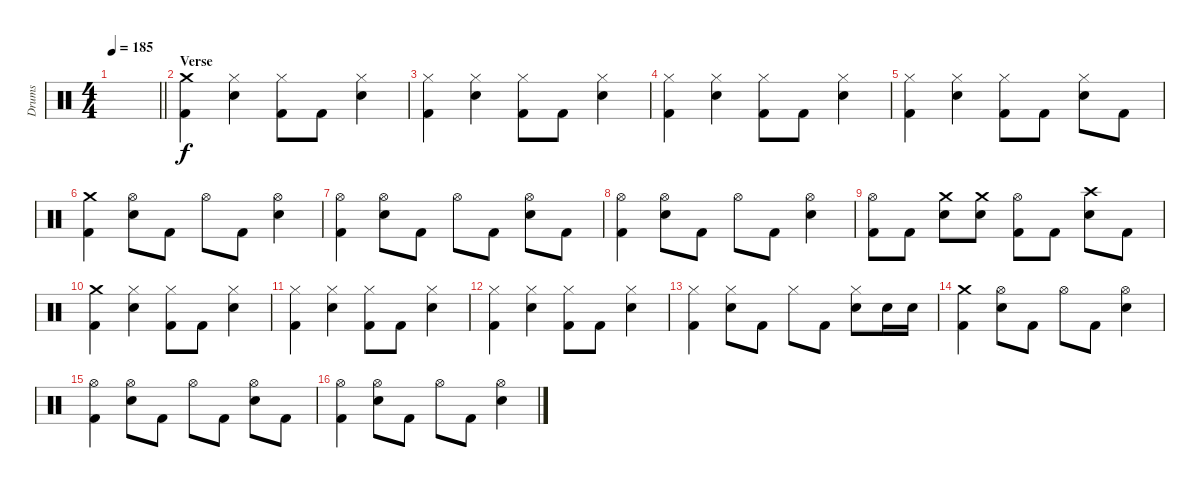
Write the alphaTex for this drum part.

\track ("Drums" "Drums") {instrument percussion}
\staff {score}
\articulation defaults
\ts (4 4)
\tempo 185
\clef neutral
\barLineRight lightlight
\ks c
|
\section ("" "Verse")
("Crash medium (hit)" "Kick (hit) 2").4 ("Hi-Hat (closed)" "Electric Snare (hit)").4 ("Hi-Hat (closed)" "Kick (hit) 2").8 "Kick (hit) 2".8 ("Hi-Hat (closed)" "Electric Snare (hit)").4 |
("Hi-Hat (closed)" "Kick (hit) 2").4 ("Hi-Hat (closed)" "Electric Snare (hit)").4 ("Hi-Hat (closed)" "Kick (hit) 2").8 "Kick (hit) 2".8 ("Hi-Hat (closed)" "Electric Snare (hit)").4 |
("Hi-Hat (closed)" "Kick (hit) 2").4 ("Hi-Hat (closed)" "Electric Snare (hit)").4 ("Hi-Hat (closed)" "Kick (hit) 2").8 "Kick (hit) 2".8 ("Hi-Hat (closed)" "Electric Snare (hit)").4 |
("Hi-Hat (closed)" "Kick (hit) 2").4 ("Hi-Hat (closed)" "Electric Snare (hit)").4 ("Hi-Hat (closed)" "Kick (hit) 2").8 "Kick (hit) 2".8 ("Hi-Hat (closed)" "Electric Snare (hit)").8 "Kick (hit) 2".8 |
("Crash medium (hit)" "Kick (hit) 2").4 ("Hi-Hat (open)" "Electric Snare (hit)").8 "Kick (hit) 2".8 "Hi-Hat (open)".8 "Kick (hit) 2".8 ("Hi-Hat (open)" "Electric Snare (hit)").4 |
("Hi-Hat (open)" "Kick (hit) 2").4 ("Hi-Hat (open)" "Electric Snare (hit)").8 "Kick (hit) 2".8 "Hi-Hat (open)".8 "Kick (hit) 2".8 ("Hi-Hat (open)" "Electric Snare (hit)").8 "Kick (hit) 2".8 |
("Hi-Hat (open)" "Kick (hit) 2").4 ("Hi-Hat (open)" "Electric Snare (hit)").8 "Kick (hit) 2".8 "Hi-Hat (open)".8 "Kick (hit) 2".8 ("Hi-Hat (open)" "Electric Snare (hit)").4 |
("Hi-Hat (open)" "Kick (hit) 2").8 "Kick (hit) 2".8 ("Crash medium (hit)" "Electric Snare (hit)").8 ("Crash medium (hit)" "Electric Snare (hit)").8 ("Hi-Hat (open)" "Kick (hit) 2").8 "Kick (hit) 2".8 ("Crash high (hit)" "Electric Snare (hit)").8 "Kick (hit) 2".8 |
("Crash medium (hit)" "Kick (hit) 2").4 ("Hi-Hat (closed)" "Electric Snare (hit)").4 ("Hi-Hat (closed)" "Kick (hit) 2").8 "Kick (hit) 2".8 ("Hi-Hat (closed)" "Electric Snare (hit)").4 |
("Hi-Hat (closed)" "Kick (hit) 2").4 ("Hi-Hat (closed)" "Electric Snare (hit)").4 ("Hi-Hat (closed)" "Kick (hit) 2").8 "Kick (hit) 2".8 ("Hi-Hat (closed)" "Electric Snare (hit)").4 |
("Hi-Hat (closed)" "Kick (hit) 2").4 ("Hi-Hat (closed)" "Electric Snare (hit)").4 ("Hi-Hat (closed)" "Kick (hit) 2").8 "Kick (hit) 2".8 ("Hi-Hat (closed)" "Electric Snare (hit)").4 |
("Hi-Hat (closed)" "Kick (hit) 2").4 ("Hi-Hat (closed)" "Electric Snare (hit)").8 "Kick (hit) 2".8 "Hi-Hat (closed)".8 "Kick (hit) 2".8 ("Hi-Hat (closed)" "Electric Snare (hit)").8 "Electric Snare (hit)".16 "Electric Snare (hit)".16 |
("Crash medium (hit)" "Kick (hit) 2").4 ("Hi-Hat (open)" "Electric Snare (hit)").8 "Kick (hit) 2".8 "Hi-Hat (open)".8 "Kick (hit) 2".8 ("Hi-Hat (open)" "Electric Snare (hit)").4 |
("Hi-Hat (open)" "Kick (hit) 2").4 ("Hi-Hat (open)" "Electric Snare (hit)").8 "Kick (hit) 2".8 "Hi-Hat (open)".8 "Kick (hit) 2".8 ("Hi-Hat (open)" "Electric Snare (hit)").8 "Kick (hit) 2".8 |
("Hi-Hat (open)" "Kick (hit) 2").4 ("Hi-Hat (open)" "Electric Snare (hit)").8 "Kick (hit) 2".8 "Hi-Hat (open)".8 "Kick (hit) 2".8 ("Hi-Hat (open)" "Electric Snare (hit)").4
